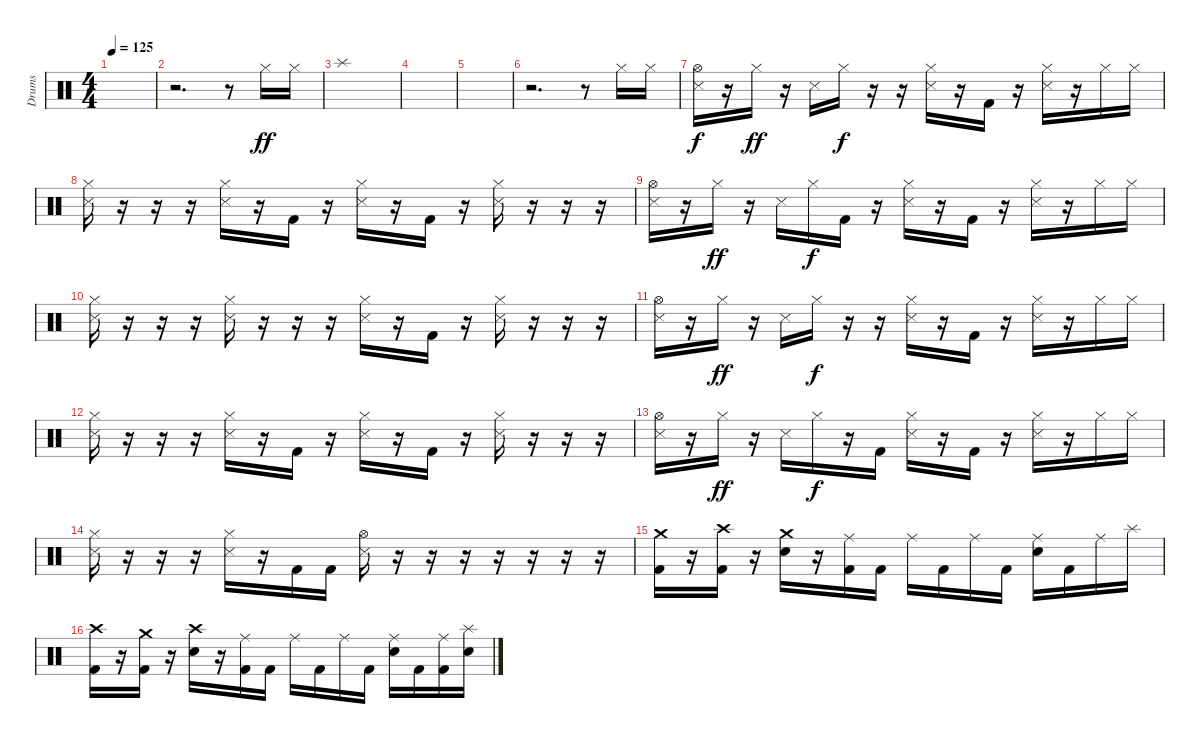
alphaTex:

\track ("Drums" "Drums") {instrument percussion}
\staff {score}
\articulation defaults
\ts (4 4)
\tempo 125
\clef neutral
\ks c
|
r.2{d} r.8 "Hi-Hat (closed)".16{dy ff} "Hi-Hat (closed)".16 |
"Splash (hit)".1 |
|
|
r.2{d} r.8 "Hi-Hat (closed)".16 "Hi-Hat (closed)".16 |
("Hi-Hat (open)" "Snare (side stick) 3").16{dy f} r.16 "Hi-Hat (closed)".16{dy ff} r.16 "Snare (side stick) 3".16 "Hi-Hat (closed)".16{dy f} r.16 r.16 ("Hi-Hat (closed)" "Snare (side stick) 3").16 r.16 "Kick (hit) 2".16 r.16 ("Hi-Hat (closed)" "Snare (side stick) 3").16 r.16 "Hi-Hat (closed)".16 "Hi-Hat (closed)".16 |
("Hi-Hat (closed)" "Snare (side stick) 3").16 r.16 r.16 r.16 ("Hi-Hat (closed)" "Snare (side stick) 3").16 r.16 "Kick (hit) 2".16 r.16 ("Hi-Hat (closed)" "Snare (side stick) 3").16 r.16 "Kick (hit) 2".16 r.16 ("Hi-Hat (closed)" "Snare (side stick) 3").16 r.16 r.16 r.16 |
("Hi-Hat (open)" "Snare (side stick) 3").16 r.16 "Hi-Hat (closed)".16{dy ff} r.16 "Snare (side stick) 3".16 "Hi-Hat (closed)".16{dy f} "Kick (hit) 2".16 r.16 ("Hi-Hat (closed)" "Snare (side stick) 3").16 r.16 "Kick (hit) 2".16 r.16 ("Hi-Hat (closed)" "Snare (side stick) 3").16 r.16 "Hi-Hat (closed)".16 "Hi-Hat (closed)".16 |
("Hi-Hat (closed)" "Snare (side stick) 3").16 r.16 r.16 r.16 ("Hi-Hat (closed)" "Snare (side stick) 3").16 r.16 r.16 r.16 ("Hi-Hat (closed)" "Snare (side stick) 3").16 r.16 "Kick (hit) 2".16 r.16 ("Hi-Hat (closed)" "Snare (side stick) 3").16 r.16 r.16 r.16 |
("Hi-Hat (open)" "Snare (side stick) 3").16 r.16 "Hi-Hat (closed)".16{dy ff} r.16 "Snare (side stick) 3".16 "Hi-Hat (closed)".16{dy f} r.16 r.16 ("Hi-Hat (closed)" "Snare (side stick) 3").16 r.16 "Kick (hit) 2".16 r.16 ("Hi-Hat (closed)" "Snare (side stick) 3").16 r.16 "Hi-Hat (closed)".16 "Hi-Hat (closed)".16 |
("Hi-Hat (closed)" "Snare (side stick) 3").16 r.16 r.16 r.16 ("Hi-Hat (closed)" "Snare (side stick) 3").16 r.16 "Kick (hit) 2".16 r.16 ("Hi-Hat (closed)" "Snare (side stick) 3").16 r.16 "Kick (hit) 2".16 r.16 ("Hi-Hat (closed)" "Snare (side stick) 3").16 r.16 r.16 r.16 |
("Hi-Hat (open)" "Snare (side stick) 3").16 r.16 "Hi-Hat (closed)".16{dy ff} r.16 "Snare (side stick) 3".16 "Hi-Hat (closed)".16{dy f} r.16 "Kick (hit) 2".16 ("Hi-Hat (closed)" "Snare (side stick) 3").16 r.16 "Kick (hit) 2".16 r.16 ("Hi-Hat (closed)" "Snare (side stick) 3").16 r.16 "Hi-Hat (closed)".16 "Hi-Hat (closed)".16 |
("Hi-Hat (closed)" "Snare (side stick) 3").16 r.16 r.16 r.16 ("Hi-Hat (closed)" "Snare (side stick) 3").16 r.16 "Kick (hit) 2".16 "Kick (hit) 2".16 ("Hi-Hat (open)" "Snare (side stick) 3").16 r.16 r.16 r.16 r.16 r.16 r.16 r.16 |
("Crash medium (hit)" "Kick (hit) 2").16 r.16 ("Crash high (hit)" "Kick (hit) 2").16 r.16 ("Crash medium (hit)" "Electric Snare (hit)").16 r.16 ("Ride (middle)" "Kick (hit) 2").16 "Kick (hit) 2".16 "Ride (middle)".16 "Kick (hit) 2".16 "Ride (middle)".16 "Kick (hit) 2".16 ("Ride (middle)" "Electric Snare (hit)").16 "Kick (hit) 2".16 "Ride (middle)".16 "Splash (hit)".16 |
("Crash high (hit)" "Kick (hit) 2").16 r.16 ("Crash medium (hit)" "Kick (hit) 2").16 r.16 ("Crash high (hit)" "Electric Snare (hit)").16 r.16 ("Ride (middle)" "Kick (hit) 2").16 "Kick (hit) 2".16 "Ride (middle)".16 "Kick (hit) 2".16 "Ride (middle)".16 "Kick (hit) 2".16 ("Ride (middle)" "Electric Snare (hit)").16 "Kick (hit) 2".16 ("Ride (middle)" "Kick (hit) 2").16 ("Splash (hit)" "Electric Snare (hit)").16
